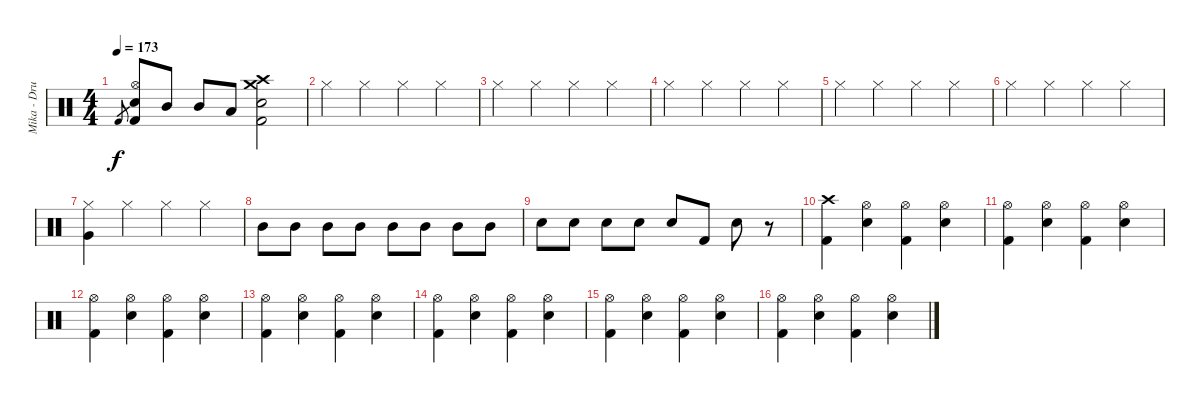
\track ("Mika - Drums" "Mika - Dru") {instrument percussion}
\staff {score}
\articulation defaults
\ts (4 4)
\tempo 173
\clef neutral
\ks c "Kick (hit) 2".8{gr dy f}
("Hi-Hat (open)" "Electric Snare (hit)" "Kick (hit) 2").8 "Mid Tom (hit)".8 "Mid Tom (hit)".8 "Low Tom (hit)".8 ("Crash high (hit)" "Crash medium (hit)" "Electric Snare (hit)" "Kick (hit) 2").2 |
"Hi-Hat (closed)".4 "Hi-Hat (closed)".4 "Hi-Hat (closed)".4 "Hi-Hat (closed)".4 |
"Hi-Hat (closed)".4 "Hi-Hat (closed)".4 "Hi-Hat (closed)".4 "Hi-Hat (closed)".4 |
"Hi-Hat (closed)".4 "Hi-Hat (closed)".4 "Hi-Hat (closed)".4 "Hi-Hat (closed)".4 |
"Hi-Hat (closed)".4 "Hi-Hat (closed)".4 "Hi-Hat (closed)".4 "Hi-Hat (closed)".4 |
"Hi-Hat (closed)".4 "Hi-Hat (closed)".4 "Hi-Hat (closed)".4 "Hi-Hat (closed)".4 |
("Hi-Hat (closed)" "Very Low Tom (hit)").4 "Hi-Hat (closed)".4 "Hi-Hat (closed)".4 "Hi-Hat (closed)".4 |
"Mid Tom (hit)".8 "Mid Tom (hit)".8 "Mid Tom (hit)".8 "Mid Tom (hit)".8 "Mid Tom (hit)".8 "Mid Tom (hit)".8 "Mid Tom (hit)".8 "Mid Tom (hit)".8 |
"Electric Snare (hit)".8 "Electric Snare (hit)".8 "Electric Snare (hit)".8 "Electric Snare (hit)".8 "Electric Snare (hit)".8 "Kick (hit) 2".8 "Electric Snare (hit)".8 r.8 |
("Crash high (hit)" "Kick (hit) 2").4 ("Hi-Hat (open)" "Electric Snare (hit)").4 ("Hi-Hat (open)" "Kick (hit) 2").4 ("Hi-Hat (open)" "Electric Snare (hit)").4 |
("Hi-Hat (open)" "Kick (hit) 2").4 ("Hi-Hat (open)" "Electric Snare (hit)").4 ("Hi-Hat (open)" "Kick (hit) 2").4 ("Hi-Hat (open)" "Electric Snare (hit)").4 |
("Hi-Hat (open)" "Kick (hit) 2").4 ("Hi-Hat (open)" "Electric Snare (hit)").4 ("Hi-Hat (open)" "Kick (hit) 2").4 ("Hi-Hat (open)" "Electric Snare (hit)").4 |
("Hi-Hat (open)" "Kick (hit) 2").4 ("Hi-Hat (open)" "Electric Snare (hit)").4 ("Hi-Hat (open)" "Kick (hit) 2").4 ("Hi-Hat (open)" "Electric Snare (hit)").4 |
("Hi-Hat (open)" "Kick (hit) 2").4 ("Hi-Hat (open)" "Electric Snare (hit)").4 ("Hi-Hat (open)" "Kick (hit) 2").4 ("Hi-Hat (open)" "Electric Snare (hit)").4 |
("Hi-Hat (open)" "Kick (hit) 2").4 ("Hi-Hat (open)" "Electric Snare (hit)").4 ("Hi-Hat (open)" "Kick (hit) 2").4 ("Hi-Hat (open)" "Electric Snare (hit)").4 |
("Hi-Hat (open)" "Kick (hit) 2").4 ("Hi-Hat (open)" "Electric Snare (hit)").4 ("Hi-Hat (open)" "Kick (hit) 2").4 ("Hi-Hat (open)" "Electric Snare (hit)").4
